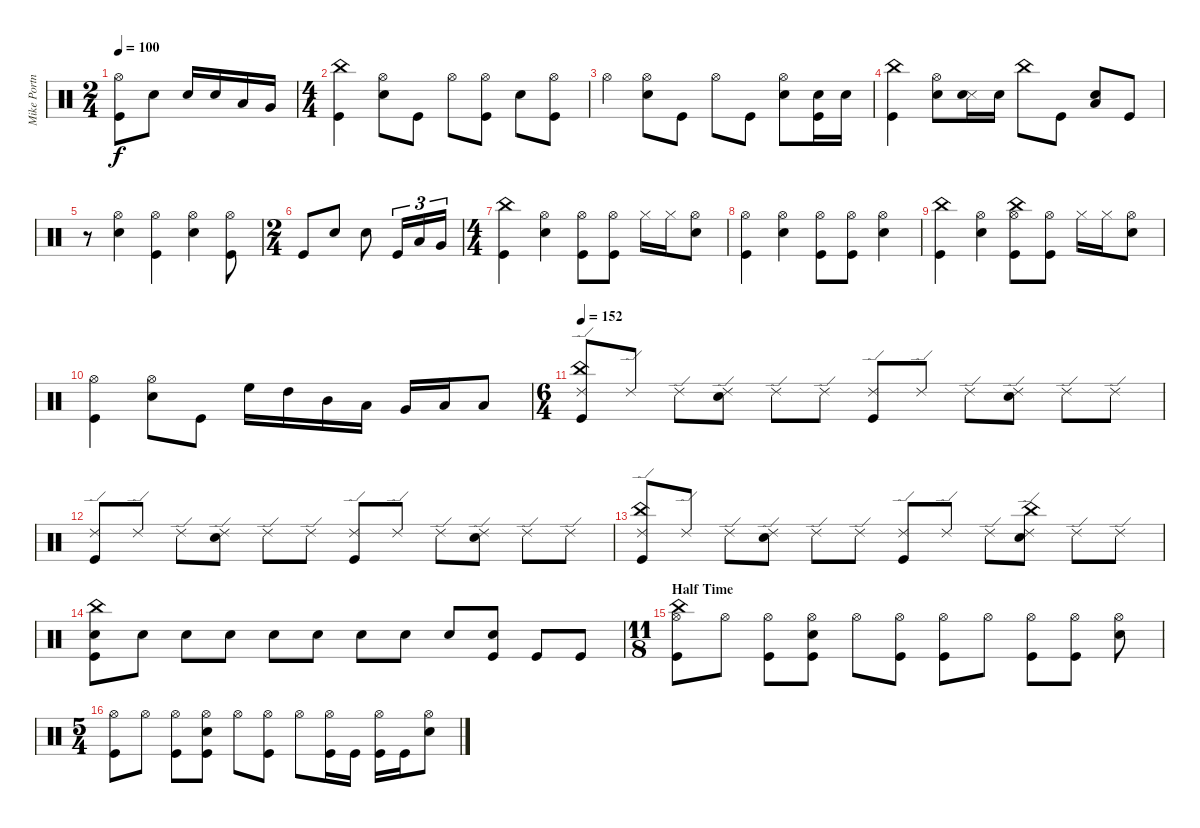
\track ("Mike Portnoy (Drums)" "Mike Portn") {instrument percussion}
\staff {score}
\articulation defaults
\ts (2 4)
\tempo 100
\clef neutral
\ks c
("Kick (hit)" "Hi-Hat (open)").8{dy f} "Snare (hit) 2".8 "Snare (hit) 2".16 "Snare (hit) 2".16 "Low Tom (hit)".16 "Very Low Tom (hit)".16 |
\ts (4 4)
("Kick (hit)" "China (hit)").4 ("Snare (hit) 2" "Hi-Hat (open)").8 "Kick (hit)".8 "Hi-Hat (open)".8 ("Kick (hit)" "Hi-Hat (open)").8 "Snare (hit) 2".8 ("Kick (hit)" "Hi-Hat (open)").8 |
"Hi-Hat (open)".4 ("Snare (hit) 2" "Hi-Hat (open)").8 "Kick (hit)".8 "Hi-Hat (open)".8 "Kick (hit)".8 ("Snare (hit) 2" "Hi-Hat (open)").8 ("Kick (hit)" "Snare (hit) 2").16 "Snare (hit) 2".16 |
("Kick (hit)" "China (hit)").4 ("Snare (hit) 2" "Hi-Hat (open)").8 ("Metronome (hit)" "Snare (hit) 2").16 "Snare (hit) 2".16 "China (hit)".8 "Kick (hit)".8 ("Snare (hit) 2" "Low Tom (hit)").8 "Kick (hit)".8 |
r.8 ("Snare (hit) 2" "Hi-Hat (open)").4 ("Kick (hit)" "Hi-Hat (open)").4 ("Snare (hit) 2" "Hi-Hat (open)").4 ("Kick (hit)" "Hi-Hat (open)").8 |
\ts (2 4)
"Kick (hit)".8 "Snare (hit) 2".8 "Snare (hit) 2".8 "Kick (hit)".16{tu (3 2)} "Low Tom (hit)".16{tu (3 2)} "Very Low Tom (hit)".16{tu (3 2)} |
\ts (4 4)
("Kick (hit)" "China (hit)").4 ("Snare (hit) 2" "Hi-Hat (open)").4 ("Kick (hit)" "Hi-Hat (open)").8 ("Kick (hit)" "Hi-Hat (open)").8 "Hi-Hat (closed)".16 "Hi-Hat (closed)".16 ("Snare (hit) 2" "Hi-Hat (open)").8 |
("Kick (hit)" "Hi-Hat (open)").4 ("Snare (hit) 2" "Hi-Hat (open)").4 ("Kick (hit)" "Hi-Hat (open)").8 ("Kick (hit)" "Hi-Hat (open)").8 ("Snare (hit) 2" "Hi-Hat (open)").4 |
("Kick (hit)" "China (hit)").4 ("Snare (hit) 2" "Hi-Hat (open)").4 ("Kick (hit)" "Hi-Hat (open)" "China (hit)").8 ("Kick (hit)" "Hi-Hat (open)").8 "Hi-Hat (closed)".16 "Hi-Hat (closed)".16 ("Snare (hit) 2" "Hi-Hat (open)").8 |
("Kick (hit)" "Hi-Hat (open)").4 ("Snare (hit) 2" "Hi-Hat (open)").8 "Kick (hit)".8 "High Floor Tom (hit)".16 "High Tom (hit)".16 "Mid Tom (hit)".16 "Low Tom (hit)".16 "Very Low Tom (hit)".16 "Low Tom (hit)".16 "Low Floor Tom (hit)".8 |
\ts (6 4)
\tempo 152
("Kick (hit)" "China (hit)" "Ride (edge) 2").8 "Ride (edge) 2".8 "Ride (edge) 2".8 ("Snare (hit) 2" "Ride (edge) 2").8 "Ride (edge) 2".8 "Ride (edge) 2".8 ("Kick (hit)" "Ride (edge) 2").8 "Ride (edge) 2".8 "Ride (edge) 2".8 ("Snare (hit) 2" "Ride (edge) 2").8 "Ride (edge) 2".8 "Ride (edge) 2".8 |
("Kick (hit)" "Ride (edge) 2").8 "Ride (edge) 2".8 "Ride (edge) 2".8 ("Snare (hit) 2" "Ride (edge) 2").8 "Ride (edge) 2".8 "Ride (edge) 2".8 ("Kick (hit)" "Ride (edge) 2").8 "Ride (edge) 2".8 "Ride (edge) 2".8 ("Snare (hit) 2" "Ride (edge) 2").8 "Ride (edge) 2".8 "Ride (edge) 2".8 |
("Kick (hit)" "China (hit)" "Ride (edge) 2").8 "Ride (edge) 2".8 "Ride (edge) 2".8 ("Snare (hit) 2" "Ride (edge) 2").8 "Ride (edge) 2".8 "Ride (edge) 2".8 ("Kick (hit)" "Ride (edge) 2").8 "Ride (edge) 2".8 "Ride (edge) 2".8 ("Snare (hit) 2" "China (hit)" "Ride (edge) 2").8 "Ride (edge) 2".8 "Ride (edge) 2".8 |
("Kick (hit)" "Snare (hit) 2" "China (hit)").8 "Snare (hit) 2".8 "Snare (hit) 2".8 "Snare (hit) 2".8 "Snare (hit) 2".8 "Snare (hit) 2".8 "Snare (hit) 2".8 "Snare (hit) 2".8 "Snare (hit) 2".8 ("Kick (hit)" "Snare (hit) 2").8 "Kick (hit)".8 "Kick (hit)".8 |
\ts (11 8)
\section ("" "Half Time")
("Kick (hit)" "Hi-Hat (open)" "China (hit)").8 "Hi-Hat (open)".8 ("Kick (hit)" "Hi-Hat (open)").8 ("Kick (hit)" "Snare (hit) 2" "Hi-Hat (open)").8 "Hi-Hat (open)".8 ("Kick (hit)" "Hi-Hat (open)").8 ("Kick (hit)" "Hi-Hat (open)").8 "Hi-Hat (open)".8 ("Kick (hit)" "Hi-Hat (open)").8 ("Kick (hit)" "Hi-Hat (open)").8 ("Snare (hit) 2" "Hi-Hat (open)").8 |
\ts (5 4)
("Kick (hit)" "Hi-Hat (open)").8 "Hi-Hat (open)".8 ("Kick (hit)" "Hi-Hat (open)").8 ("Kick (hit)" "Snare (hit) 2" "Hi-Hat (open)").8 "Hi-Hat (open)".8 ("Kick (hit)" "Hi-Hat (open)").8 "Hi-Hat (open)".8 ("Kick (hit)" "Hi-Hat (open)").16 "Kick (hit)".16 ("Kick (hit)" "Hi-Hat (open)").16 "Kick (hit)".16 ("Snare (hit) 2" "Hi-Hat (open)").8
